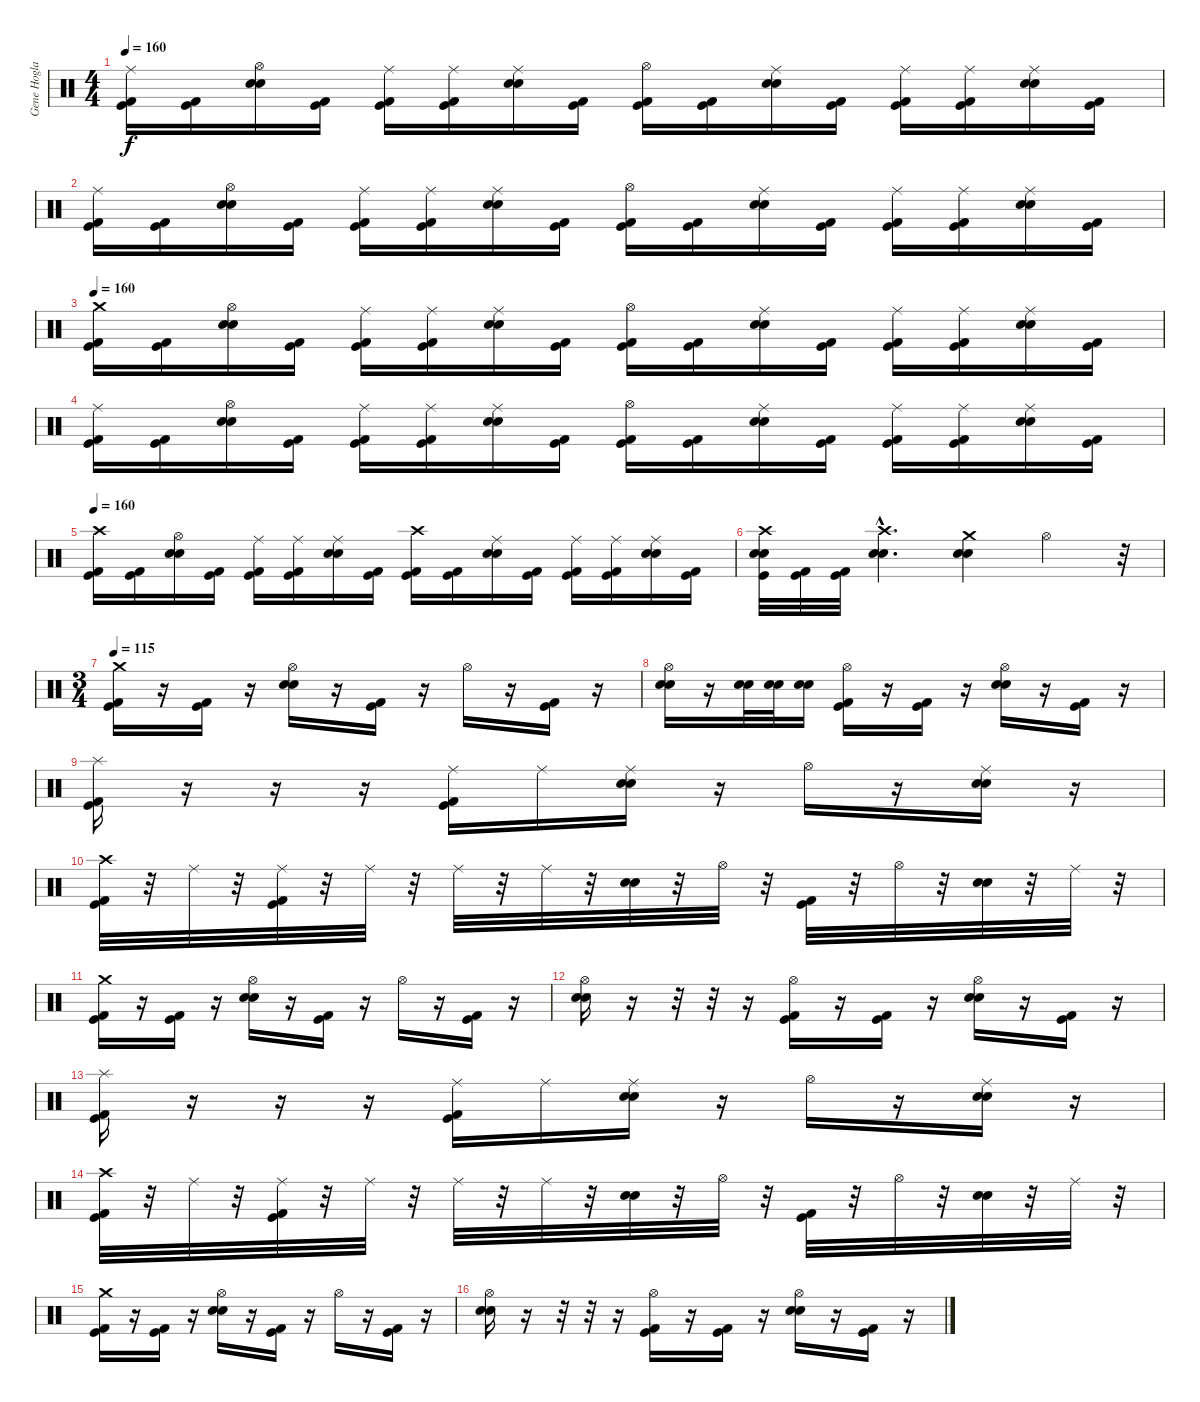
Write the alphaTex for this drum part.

\track ("Gene Hoglan" "Gene Hogla") {instrument percussion}
\staff {score}
\articulation defaults
\ts (4 4)
\tempo 160
\clef neutral
\ks c
("Ride (middle)" "Kick (hit) 2" "Kick (hit)").16{dy f} ("Kick (hit) 2" "Kick (hit)").16 ("Hi-Hat (open)" "Snare (hit) 2" "Electric Snare (hit)").16 ("Kick (hit) 2" "Kick (hit)").16 ("Ride (middle)" "Kick (hit) 2" "Kick (hit)").16 ("Ride (middle)" "Kick (hit) 2" "Kick (hit)").16 ("Ride (middle)" "Snare (hit) 2" "Electric Snare (hit)").16 ("Kick (hit) 2" "Kick (hit)").16 ("Hi-Hat (open)" "Kick (hit) 2" "Kick (hit)").16 ("Kick (hit) 2" "Kick (hit)").16 ("Ride (middle)" "Snare (hit) 2" "Electric Snare (hit)").16 ("Kick (hit) 2" "Kick (hit)").16 ("Ride (middle)" "Kick (hit) 2" "Kick (hit)").16 ("Ride (middle)" "Kick (hit) 2" "Kick (hit)").16 ("Ride (middle)" "Snare (hit) 2" "Electric Snare (hit)").16 ("Kick (hit) 2" "Kick (hit)").16 |
("Ride (middle)" "Kick (hit) 2" "Kick (hit)").16 ("Kick (hit) 2" "Kick (hit)").16 ("Hi-Hat (open)" "Snare (hit) 2" "Electric Snare (hit)").16 ("Kick (hit) 2" "Kick (hit)").16 ("Ride (middle)" "Kick (hit) 2" "Kick (hit)").16 ("Ride (middle)" "Kick (hit) 2" "Kick (hit)").16 ("Ride (middle)" "Snare (hit) 2" "Electric Snare (hit)").16 ("Kick (hit) 2" "Kick (hit)").16 ("Hi-Hat (open)" "Kick (hit) 2" "Kick (hit)").16 ("Kick (hit) 2" "Kick (hit)").16 ("Ride (middle)" "Snare (hit) 2" "Electric Snare (hit)").16 ("Kick (hit) 2" "Kick (hit)").16 ("Ride (middle)" "Kick (hit) 2" "Kick (hit)").16 ("Ride (middle)" "Kick (hit) 2" "Kick (hit)").16 ("Ride (middle)" "Snare (hit) 2" "Electric Snare (hit)").16 ("Kick (hit) 2" "Kick (hit)").16 |
\tempo 160
("Crash medium (hit)" "Kick (hit) 2" "Kick (hit)").16 ("Kick (hit) 2" "Kick (hit)").16 ("Hi-Hat (open)" "Snare (hit) 2" "Electric Snare (hit)").16 ("Kick (hit) 2" "Kick (hit)").16 ("Ride (middle)" "Kick (hit) 2" "Kick (hit)").16 ("Ride (middle)" "Kick (hit) 2" "Kick (hit)").16 ("Ride (middle)" "Snare (hit) 2" "Electric Snare (hit)").16 ("Kick (hit) 2" "Kick (hit)").16 ("Hi-Hat (open)" "Kick (hit) 2" "Kick (hit)").16 ("Kick (hit) 2" "Kick (hit)").16 ("Ride (middle)" "Snare (hit) 2" "Electric Snare (hit)").16 ("Kick (hit) 2" "Kick (hit)").16 ("Ride (middle)" "Kick (hit) 2" "Kick (hit)").16 ("Ride (middle)" "Kick (hit) 2" "Kick (hit)").16 ("Ride (middle)" "Snare (hit) 2" "Electric Snare (hit)").16 ("Kick (hit) 2" "Kick (hit)").16 |
("Ride (middle)" "Kick (hit) 2" "Kick (hit)").16 ("Kick (hit) 2" "Kick (hit)").16 ("Hi-Hat (open)" "Snare (hit) 2" "Electric Snare (hit)").16 ("Kick (hit) 2" "Kick (hit)").16 ("Ride (middle)" "Kick (hit) 2" "Kick (hit)").16 ("Ride (middle)" "Kick (hit) 2" "Kick (hit)").16 ("Ride (middle)" "Snare (hit) 2" "Electric Snare (hit)").16 ("Kick (hit) 2" "Kick (hit)").16 ("Hi-Hat (open)" "Kick (hit) 2" "Kick (hit)").16 ("Kick (hit) 2" "Kick (hit)").16 ("Ride (middle)" "Snare (hit) 2" "Electric Snare (hit)").16 ("Kick (hit) 2" "Kick (hit)").16 ("Ride (middle)" "Kick (hit) 2" "Kick (hit)").16 ("Ride (middle)" "Kick (hit) 2" "Kick (hit)").16 ("Ride (middle)" "Snare (hit) 2" "Electric Snare (hit)").16 ("Kick (hit) 2" "Kick (hit)").16 |
\tempo 160
("Crash high (hit)" "Kick (hit) 2" "Kick (hit)").16 ("Kick (hit) 2" "Kick (hit)").16 ("Hi-Hat (open)" "Snare (hit) 2" "Electric Snare (hit)").16 ("Kick (hit) 2" "Kick (hit)").16 ("Ride (middle)" "Kick (hit) 2" "Kick (hit)").16 ("Ride (middle)" "Kick (hit) 2" "Kick (hit)").16 ("Ride (middle)" "Snare (hit) 2" "Electric Snare (hit)").16 ("Kick (hit) 2" "Kick (hit)").16 ("Crash high (hit)" "Kick (hit) 2" "Kick (hit)").16 ("Kick (hit) 2" "Kick (hit)").16 ("Ride (middle)" "Snare (hit) 2" "Electric Snare (hit)").16 ("Kick (hit) 2" "Kick (hit)").16 ("Ride (middle)" "Kick (hit) 2" "Kick (hit)").16 ("Ride (middle)" "Kick (hit) 2" "Kick (hit)").16 ("Ride (middle)" "Snare (hit) 2" "Electric Snare (hit)").16 ("Kick (hit) 2" "Kick (hit)").16 |
("Crash high (hit)" "Snare (hit) 2" "Electric Snare (hit)" "Kick (hit)").32 ("Kick (hit) 2" "Kick (hit)").32 ("Kick (hit) 2" "Kick (hit)").32 ("Crash high (hit)"{hac} "Snare (hit) 2"{hac} "Electric Snare (hit)"{hac}).4{d} ("Crash medium (hit)" "Snare (hit) 2" "Electric Snare (hit)").4 "Hi-Hat (open)".4 r.32 |
\ts (3 4)
\tempo 115
("Crash medium (hit)" "Kick (hit) 2" "Kick (hit)").16 r.16 ("Kick (hit) 2" "Kick (hit)").16 r.16 ("Hi-Hat (open)" "Snare (hit) 2" "Electric Snare (hit)").16 r.16 ("Kick (hit) 2" "Kick (hit)").16 r.16 "Hi-Hat (open)".16 r.16 ("Kick (hit) 2" "Kick (hit)").16 r.16 |
("Hi-Hat (open)" "Snare (hit) 2" "Electric Snare (hit)").16 r.16 ("Electric Snare (hit)" "Snare (hit) 2").32 ("Electric Snare (hit)" "Snare (hit) 2").32 ("Electric Snare (hit)" "Snare (hit) 2").16 ("Hi-Hat (open)" "Kick (hit)" "Kick (hit) 2").16 r.16 ("Kick (hit)" "Kick (hit) 2").16 r.16 ("Hi-Hat (open)" "Snare (hit) 2" "Electric Snare (hit)").16 r.16 ("Kick (hit) 2" "Kick (hit)").16 r.16 |
("Splash (hit)" "Kick (hit) 2" "Kick (hit)").16 r.16 r.16 r.16 ("Ride (middle)" "Kick (hit)" "Kick (hit) 2").16 "Ride (middle)".16 ("Ride (middle)" "Snare (hit) 2" "Electric Snare (hit)").16 r.16 "Hi-Hat (open)".16 r.16 ("Ride (middle)" "Electric Snare (hit)" "Snare (hit) 2").16 r.16 |
("Crash high (hit)" "Kick (hit) 2" "Kick (hit)").32 r.32 "Ride (middle)".32 r.32 ("Ride (middle)" "Kick (hit)" "Kick (hit) 2").32 r.32 "Ride (middle)".32 r.32 "Ride (middle)".32 r.32 "Ride (middle)".32 r.32 ("Snare (hit) 2" "Electric Snare (hit)").32 r.32 "Hi-Hat (open)".32 r.32 ("Kick (hit) 2" "Kick (hit)").32 r.32 "Hi-Hat (open)".32 r.32 ("Snare (hit) 2" "Electric Snare (hit)").32 r.32 "Ride (middle)".32 r.32 |
("Crash medium (hit)" "Kick (hit) 2" "Kick (hit)").16 r.16 ("Kick (hit) 2" "Kick (hit)").16 r.16 ("Hi-Hat (open)" "Snare (hit) 2" "Electric Snare (hit)").16 r.16 ("Kick (hit) 2" "Kick (hit)").16 r.16 "Hi-Hat (open)".16 r.16 ("Kick (hit) 2" "Kick (hit)").16 r.16 |
("Hi-Hat (open)" "Snare (hit) 2" "Electric Snare (hit)").16 r.16 r.32 r.32 r.16 ("Hi-Hat (open)" "Kick (hit)" "Kick (hit) 2").16 r.16 ("Kick (hit)" "Kick (hit) 2").16 r.16 ("Hi-Hat (open)" "Snare (hit) 2" "Electric Snare (hit)").16 r.16 ("Kick (hit) 2" "Kick (hit)").16 r.16 |
("Splash (hit)" "Kick (hit) 2" "Kick (hit)").16 r.16 r.16 r.16 ("Ride (middle)" "Kick (hit)" "Kick (hit) 2").16 "Ride (middle)".16 ("Ride (middle)" "Snare (hit) 2" "Electric Snare (hit)").16 r.16 "Hi-Hat (open)".16 r.16 ("Ride (middle)" "Electric Snare (hit)" "Snare (hit) 2").16 r.16 |
("Crash high (hit)" "Kick (hit) 2" "Kick (hit)").32 r.32 "Ride (middle)".32 r.32 ("Ride (middle)" "Kick (hit)" "Kick (hit) 2").32 r.32 "Ride (middle)".32 r.32 "Ride (middle)".32 r.32 "Ride (middle)".32 r.32 ("Snare (hit) 2" "Electric Snare (hit)").32 r.32 "Hi-Hat (open)".32 r.32 ("Kick (hit) 2" "Kick (hit)").32 r.32 "Hi-Hat (open)".32 r.32 ("Snare (hit) 2" "Electric Snare (hit)").32 r.32 "Ride (middle)".32 r.32 |
("Crash medium (hit)" "Kick (hit) 2" "Kick (hit)").16 r.16 ("Kick (hit) 2" "Kick (hit)").16 r.16 ("Hi-Hat (open)" "Snare (hit) 2" "Electric Snare (hit)").16 r.16 ("Kick (hit) 2" "Kick (hit)").16 r.16 "Hi-Hat (open)".16 r.16 ("Kick (hit) 2" "Kick (hit)").16 r.16 |
("Hi-Hat (open)" "Snare (hit) 2" "Electric Snare (hit)").16 r.16 r.32 r.32 r.16 ("Hi-Hat (open)" "Kick (hit)" "Kick (hit) 2").16 r.16 ("Kick (hit)" "Kick (hit) 2").16 r.16 ("Hi-Hat (open)" "Snare (hit) 2" "Electric Snare (hit)").16 r.16 ("Kick (hit) 2" "Kick (hit)").16 r.16
